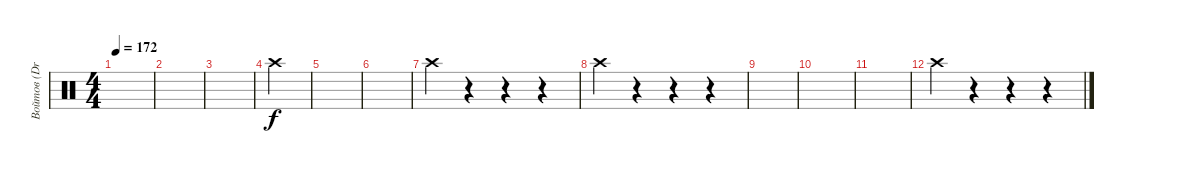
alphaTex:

\track ("Войтов (Drums)" "Войтов (Dr") {instrument percussion}
\staff {score}
\articulation defaults
\ts (4 4)
\tempo 172
\clef neutral
\ks c
|
|
|
"Crash high (hit)".4 |
|
|
"Crash high (hit)".4 r.4 r.4 r.4 |
"Crash high (hit)".4 r.4 r.4 r.4 |
|
|
|
"Crash high (hit)".4 r.4 r.4 r.4
